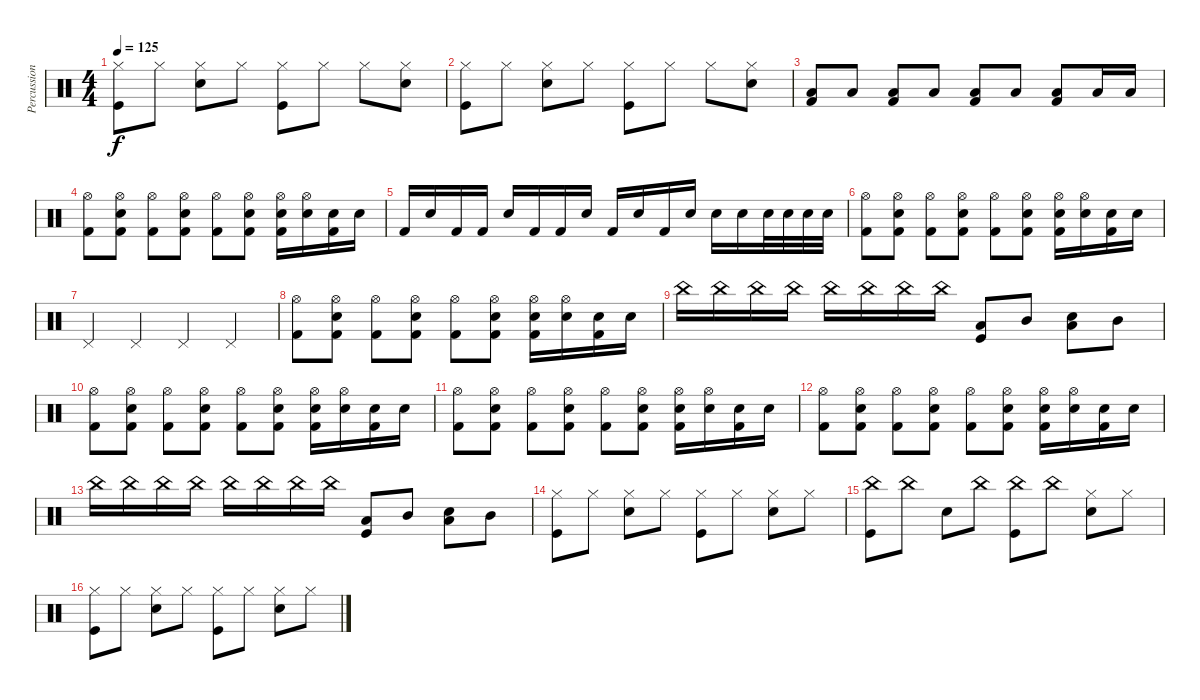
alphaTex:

\track ("Percussions" "Percussion") {instrument percussion}
\staff {score}
\articulation defaults
\ts (4 4)
\tempo 125
\clef neutral
\ks c
("Hi-Hat (closed)" "Kick (hit)").8{dy f} "Hi-Hat (closed)".8 ("Hi-Hat (closed)" "Snare (hit) 2").8 "Hi-Hat (closed)".8 ("Hi-Hat (closed)" "Kick (hit)").8 "Hi-Hat (closed)".8 "Hi-Hat (closed)".8 ("Hi-Hat (closed)" "Snare (hit) 2").8 |
("Hi-Hat (closed)" "Kick (hit)").8 "Hi-Hat (closed)".8 ("Hi-Hat (closed)" "Snare (hit) 2").8 "Hi-Hat (closed)".8 ("Hi-Hat (closed)" "Kick (hit)").8 "Hi-Hat (closed)".8 "Hi-Hat (closed)".8 ("Hi-Hat (closed)" "Snare (hit) 2").8 |
("Low Floor Tom (hit)" "Kick (hit) 2").8 "Low Floor Tom (hit)".8 ("Low Floor Tom (hit)" "Kick (hit) 2").8 "Low Floor Tom (hit)".8 ("Low Floor Tom (hit)" "Kick (hit) 2").8 "Low Floor Tom (hit)".8 ("Low Floor Tom (hit)" "Kick (hit) 2").8 "Low Floor Tom (hit)".16 "Low Floor Tom (hit)".16 |
("Hi-Hat (open)" "Kick (hit) 2").8 ("Hi-Hat (open)" "Electric Snare (hit)" "Kick (hit) 2").8 ("Hi-Hat (open)" "Kick (hit) 2").8 ("Hi-Hat (open)" "Electric Snare (hit)" "Kick (hit) 2").8 ("Hi-Hat (open)" "Kick (hit) 2").8 ("Hi-Hat (open)" "Electric Snare (hit)" "Kick (hit) 2").8 ("Hi-Hat (open)" "Electric Snare (hit)" "Kick (hit) 2").16 ("Hi-Hat (open)" "Electric Snare (hit)").16 ("Electric Snare (hit)" "Kick (hit) 2").16 "Electric Snare (hit)".16 |
"Kick (hit) 2".16 "Snare (hit) 2".16 "Kick (hit) 2".16 "Kick (hit) 2".16 "Snare (hit) 2".16 "Kick (hit) 2".16 "Kick (hit) 2".16 "Snare (hit) 2".16 "Kick (hit) 2".16 "Snare (hit) 2".16 "Kick (hit) 2".16 "Snare (hit) 2".16 "Snare (hit) 2".16 "Snare (hit) 2".16 "Snare (hit) 2".32 "Snare (hit) 2".32 "Snare (hit) 2".32 "Snare (hit) 2".32 |
("Hi-Hat (open)" "Kick (hit) 2").8 ("Hi-Hat (open)" "Electric Snare (hit)" "Kick (hit) 2").8 ("Hi-Hat (open)" "Kick (hit) 2").8 ("Hi-Hat (open)" "Electric Snare (hit)" "Kick (hit) 2").8 ("Hi-Hat (open)" "Kick (hit) 2").8 ("Hi-Hat (open)" "Electric Snare (hit)" "Kick (hit) 2").8 ("Hi-Hat (open)" "Electric Snare (hit)" "Kick (hit) 2").16 ("Hi-Hat (open)" "Electric Snare (hit)").16 ("Electric Snare (hit)" "Kick (hit) 2").16 "Electric Snare (hit)".16 |
"Pedal Hi-Hat (hit)".4 "Pedal Hi-Hat (hit)".4 "Pedal Hi-Hat (hit)".4 "Pedal Hi-Hat (hit)".4 |
("Hi-Hat (open)" "Kick (hit) 2").8 ("Hi-Hat (open)" "Electric Snare (hit)" "Kick (hit) 2").8 ("Hi-Hat (open)" "Kick (hit) 2").8 ("Hi-Hat (open)" "Electric Snare (hit)" "Kick (hit) 2").8 ("Hi-Hat (open)" "Kick (hit) 2").8 ("Hi-Hat (open)" "Electric Snare (hit)" "Kick (hit) 2").8 ("Hi-Hat (open)" "Electric Snare (hit)" "Kick (hit) 2").16 ("Hi-Hat (open)" "Electric Snare (hit)").16 ("Electric Snare (hit)" "Kick (hit) 2").16 "Electric Snare (hit)".16 |
"China (hit)".16 "China (hit)".16 "China (hit)".16 "China (hit)".16 "China (hit)".16 "China (hit)".16 "China (hit)".16 "China (hit)".16 ("Low Tom (hit)" "Kick (hit)").8 "Mid Tom (hit)".8 ("Low Tom (hit)" "Snare (hit) 2").8 "Mid Tom (hit)".8 |
("Hi-Hat (open)" "Kick (hit) 2").8 ("Hi-Hat (open)" "Electric Snare (hit)" "Kick (hit) 2").8 ("Hi-Hat (open)" "Kick (hit) 2").8 ("Hi-Hat (open)" "Electric Snare (hit)" "Kick (hit) 2").8 ("Hi-Hat (open)" "Kick (hit) 2").8 ("Hi-Hat (open)" "Electric Snare (hit)" "Kick (hit) 2").8 ("Hi-Hat (open)" "Electric Snare (hit)" "Kick (hit) 2").16 ("Hi-Hat (open)" "Electric Snare (hit)").16 ("Electric Snare (hit)" "Kick (hit) 2").16 "Electric Snare (hit)".16 |
("Hi-Hat (open)" "Kick (hit) 2").8 ("Hi-Hat (open)" "Electric Snare (hit)" "Kick (hit) 2").8 ("Hi-Hat (open)" "Kick (hit) 2").8 ("Hi-Hat (open)" "Electric Snare (hit)" "Kick (hit) 2").8 ("Hi-Hat (open)" "Kick (hit) 2").8 ("Hi-Hat (open)" "Electric Snare (hit)" "Kick (hit) 2").8 ("Hi-Hat (open)" "Electric Snare (hit)" "Kick (hit) 2").16 ("Hi-Hat (open)" "Electric Snare (hit)").16 ("Electric Snare (hit)" "Kick (hit) 2").16 "Electric Snare (hit)".16 |
("Hi-Hat (open)" "Kick (hit) 2").8 ("Hi-Hat (open)" "Electric Snare (hit)" "Kick (hit) 2").8 ("Hi-Hat (open)" "Kick (hit) 2").8 ("Hi-Hat (open)" "Electric Snare (hit)" "Kick (hit) 2").8 ("Hi-Hat (open)" "Kick (hit) 2").8 ("Hi-Hat (open)" "Electric Snare (hit)" "Kick (hit) 2").8 ("Hi-Hat (open)" "Electric Snare (hit)" "Kick (hit) 2").16 ("Hi-Hat (open)" "Electric Snare (hit)").16 ("Electric Snare (hit)" "Kick (hit) 2").16 "Electric Snare (hit)".16 |
"China (hit)".16 "China (hit)".16 "China (hit)".16 "China (hit)".16 "China (hit)".16 "China (hit)".16 "China (hit)".16 "China (hit)".16 ("Low Tom (hit)" "Kick (hit)").8 "Mid Tom (hit)".8 ("Low Tom (hit)" "Snare (hit) 2").8 "Mid Tom (hit)".8 |
("Hi-Hat (closed)" "Kick (hit)").8 "Hi-Hat (closed)".8 ("Hi-Hat (closed)" "Snare (hit) 2").8 "Hi-Hat (closed)".8 ("Hi-Hat (closed)" "Kick (hit)").8 "Hi-Hat (closed)".8 ("Hi-Hat (closed)" "Snare (hit) 2").8 "Hi-Hat (closed)".8 |
("China (hit)" "Kick (hit)").8 "China (hit)".8 "Snare (hit) 2".8 "China (hit)".8 ("China (hit)" "Kick (hit)").8 "China (hit)".8 ("Hi-Hat (closed)" "Snare (hit) 2").8 "Hi-Hat (closed)".8 |
("Hi-Hat (closed)" "Kick (hit)").8 "Hi-Hat (closed)".8 ("Hi-Hat (closed)" "Snare (hit) 2").8 "Hi-Hat (closed)".8 ("Hi-Hat (closed)" "Kick (hit)").8 "Hi-Hat (closed)".8 ("Hi-Hat (closed)" "Snare (hit) 2").8 "Hi-Hat (closed)".8
